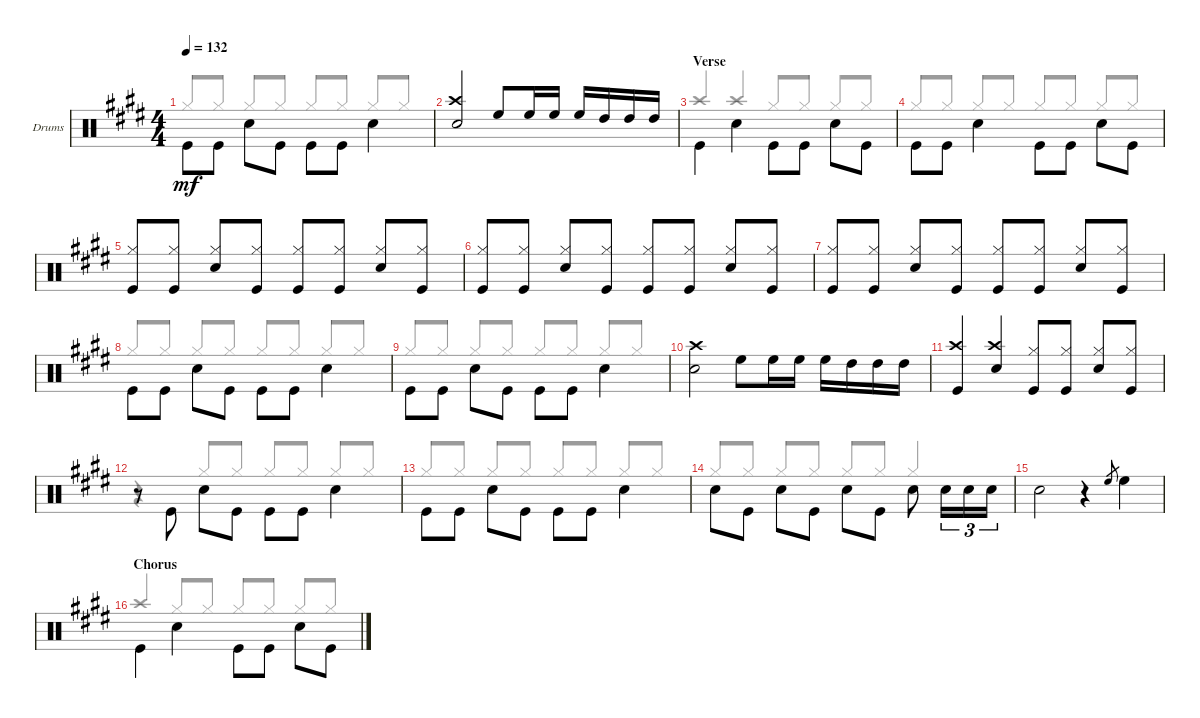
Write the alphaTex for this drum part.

\defaultSystemsLayout 4
\bracketExtendMode groupsimilarinstruments
\firstSystemTrackNameOrientation horizontal
\otherSystemsTrackNameOrientation horizontal
\track ("PETER CRISS" "Drums") {solo instrument percussion}
\staff {score}
\articulation defaults
\voice
\ts (4 4)
\tempo 132
\clef neutral
\ks e "Kick (hit)".8{dy mf beam invert} "Kick (hit)".8 "Snare (hit) 2".8{beam invert} "Kick (hit)".8 "Kick (hit)".8{beam invert} "Kick (hit)".8 "Snare (hit) 2".4{beam invert}
|
("Snare (hit) 2" "Crash high (hit)").2 "High Floor Tom (hit)".8{beam invert} "High Floor Tom (hit)".16 "High Floor Tom (hit)".16{beam invert} "High Floor Tom (hit)".16{beam invert} "High Tom (hit)".16{beam invert} "High Tom (hit)".16 "High Tom (hit)".16 |
\section ("" "Verse")
"Kick (hit)".4{beam invert} "Snare (hit) 2".4{beam invert} "Kick (hit)".8{beam invert} "Kick (hit)".8 "Snare (hit) 2".8{beam invert} "Kick (hit)".8 |
"Kick (hit)".8{beam invert} "Kick (hit)".8 "Snare (hit) 2".4{beam invert} "Kick (hit)".8{beam invert} "Kick (hit)".8 "Snare (hit) 2".8{beam invert} "Kick (hit)".8 |
("Kick (hit)" "Hi-Hat (closed)").8{beam invert} ("Kick (hit)" "Hi-Hat (closed)").8 ("Snare (hit) 2" "Hi-Hat (closed)").8{beam invert} ("Kick (hit)" "Hi-Hat (closed)").8 ("Kick (hit)" "Hi-Hat (closed)").8{beam invert} ("Kick (hit)" "Hi-Hat (closed)").8 ("Snare (hit) 2" "Hi-Hat (closed)").8{beam invert} ("Kick (hit)" "Hi-Hat (closed)").8 |
("Kick (hit)" "Hi-Hat (closed)").8{beam invert} ("Kick (hit)" "Hi-Hat (closed)").8 ("Snare (hit) 2" "Hi-Hat (closed)").8{beam invert} ("Kick (hit)" "Hi-Hat (closed)").8 ("Kick (hit)" "Hi-Hat (closed)").8{beam invert} ("Kick (hit)" "Hi-Hat (closed)").8 ("Snare (hit) 2" "Hi-Hat (closed)").8{beam invert} ("Kick (hit)" "Hi-Hat (closed)").8 |
("Kick (hit)" "Hi-Hat (closed)").8{beam invert} ("Kick (hit)" "Hi-Hat (closed)").8 ("Snare (hit) 2" "Hi-Hat (closed)").8{beam invert} ("Kick (hit)" "Hi-Hat (closed)").8 ("Kick (hit)" "Hi-Hat (closed)").8{beam invert} ("Kick (hit)" "Hi-Hat (closed)").8 ("Snare (hit) 2" "Hi-Hat (closed)").8{beam invert} ("Kick (hit)" "Hi-Hat (closed)").8 |
"Kick (hit)".8{beam invert} "Kick (hit)".8 "Snare (hit) 2".8{beam invert} "Kick (hit)".8 "Kick (hit)".8{beam invert} "Kick (hit)".8 "Snare (hit) 2".4{beam invert} |
"Kick (hit)".8{beam invert} "Kick (hit)".8 "Snare (hit) 2".8{beam invert} "Kick (hit)".8 "Kick (hit)".8{beam invert} "Kick (hit)".8 "Snare (hit) 2".4{beam invert} |
("Snare (hit) 2" "Crash high (hit)").2 "High Floor Tom (hit)".8 "High Floor Tom (hit)".16 "High Floor Tom (hit)".16 "High Floor Tom (hit)".16 "High Tom (hit)".16 "High Tom (hit)".16 "High Tom (hit)".16 |
("Kick (hit)" "Crash high (hit)").4{beam invert} ("Snare (hit) 2" "Crash high (hit)").4 ("Kick (hit)" "Hi-Hat (closed)").8{beam invert} ("Hi-Hat (closed)" "Kick (hit)").8 ("Snare (hit) 2" "Hi-Hat (closed)").8{beam invert} ("Hi-Hat (closed)" "Kick (hit)").8 |
r.8 "Kick (hit)".8{beam invert} "Snare (hit) 2".8{beam invert} "Kick (hit)".8 "Kick (hit)".8{beam invert} "Kick (hit)".8 "Snare (hit) 2".4{beam invert} |
"Kick (hit)".8{beam invert} "Kick (hit)".8 "Snare (hit) 2".8{beam invert} "Kick (hit)".8 "Kick (hit)".8{beam invert} "Kick (hit)".8 "Snare (hit) 2".4{beam invert} |
"Snare (hit) 2".8{beam invert} "Kick (hit)".8 "Snare (hit) 2".8{beam invert} "Kick (hit)".8 "Snare (hit) 2".8{beam invert} "Kick (hit)".8 "Snare (hit) 2".8{beam invert} "Snare (hit) 2".16{tu (3 2) beam invert} "Snare (hit) 2".16{tu (3 2)} "Snare (hit) 2".16{tu (3 2)} |
"Snare (hit) 2".2 r.4 "High Floor Tom (hit)".8{gr} "High Floor Tom (hit)".4 |
\section ("" "Chorus")
"Kick (hit)".4{beam invert} "Snare (hit) 2".4{beam invert} "Kick (hit)".8{beam invert} "Kick (hit)".8 "Snare (hit) 2".8{beam invert} "Kick (hit)".8
\voice
\clef neutral
\ottava regular
\simile none
\ks e "Hi-Hat (closed)".8{dy mf beam invert} "Hi-Hat (closed)".8 "Hi-Hat (closed)".8{beam invert} "Hi-Hat (closed)".8 "Hi-Hat (closed)".8{beam invert} "Hi-Hat (closed)".8 "Hi-Hat (closed)".8{beam invert} "Hi-Hat (closed)".8
|
|
"Crash high (hit)".4{beam invert} "Crash high (hit)".4{beam invert} "Hi-Hat (closed)".8{beam invert} "Hi-Hat (closed)".8 "Hi-Hat (closed)".8{beam invert} "Hi-Hat (closed)".8 |
"Hi-Hat (closed)".8{beam invert} "Hi-Hat (closed)".8 "Hi-Hat (closed)".8{beam invert} "Hi-Hat (closed)".8 "Hi-Hat (closed)".8{beam invert} "Hi-Hat (closed)".8 "Hi-Hat (closed)".8{beam invert} "Hi-Hat (closed)".8 |
|
|
|
"Hi-Hat (closed)".8{beam invert} "Hi-Hat (closed)".8 "Hi-Hat (closed)".8{beam invert} "Hi-Hat (closed)".8 "Hi-Hat (closed)".8{beam invert} "Hi-Hat (closed)".8 "Hi-Hat (closed)".8{beam invert} "Hi-Hat (closed)".8 |
"Hi-Hat (closed)".8{beam invert} "Hi-Hat (closed)".8 "Hi-Hat (closed)".8{beam invert} "Hi-Hat (closed)".8 "Hi-Hat (closed)".8{beam invert} "Hi-Hat (closed)".8 "Hi-Hat (closed)".8{beam invert} "Hi-Hat (closed)".8 |
|
|
r.4 "Hi-Hat (closed)".8{beam invert} "Hi-Hat (closed)".8 "Hi-Hat (closed)".8{beam invert} "Hi-Hat (closed)".8 "Hi-Hat (closed)".8{beam invert} "Hi-Hat (closed)".8 |
"Hi-Hat (closed)".8{beam invert} "Hi-Hat (closed)".8 "Hi-Hat (closed)".8{beam invert} "Hi-Hat (closed)".8 "Hi-Hat (closed)".8{beam invert} "Hi-Hat (closed)".8 "Hi-Hat (closed)".8{beam invert} "Hi-Hat (closed)".8 |
"Hi-Hat (closed)".8{beam invert} "Hi-Hat (closed)".8 "Hi-Hat (closed)".8{beam invert} "Hi-Hat (closed)".8 "Hi-Hat (closed)".8{beam invert} "Hi-Hat (closed)".8 "Hi-Hat (closed)".4{beam invert} |
|
"Crash high (hit)".4{beam invert} "Hi-Hat (closed)".8{beam invert} "Hi-Hat (closed)".8 "Hi-Hat (closed)".8{beam invert} "Hi-Hat (closed)".8 "Hi-Hat (closed)".8{beam invert} "Hi-Hat (closed)".8
